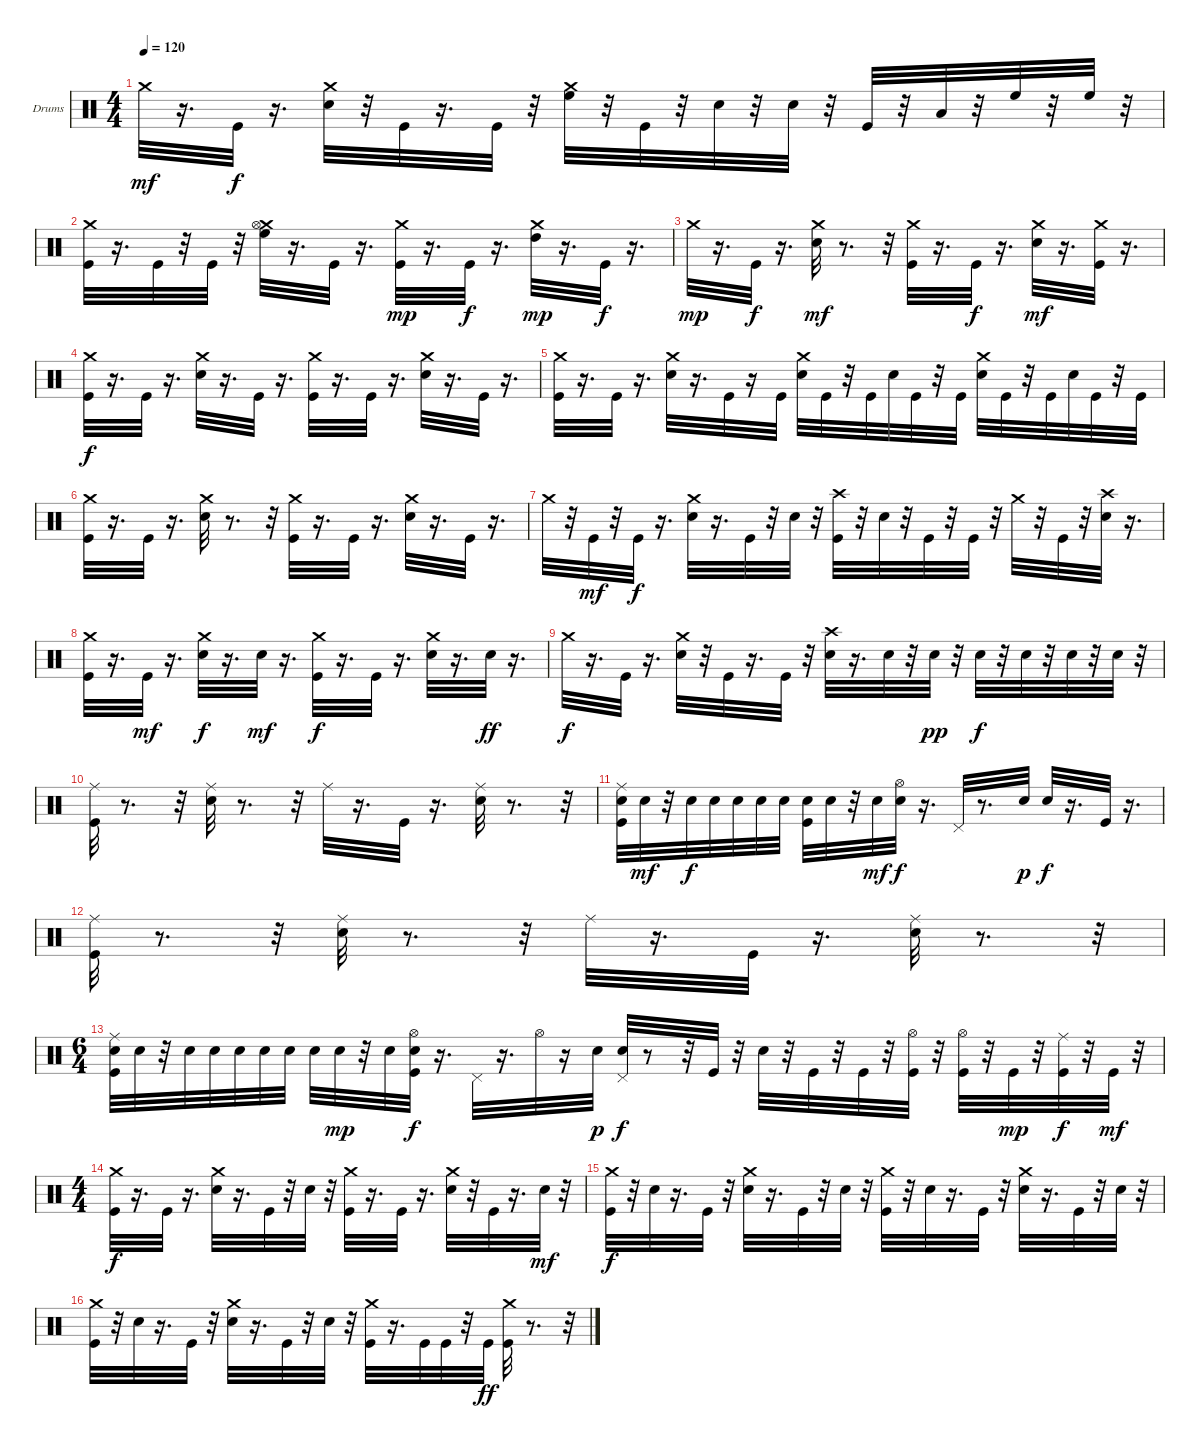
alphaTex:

\bracketExtendMode groupsimilarinstruments
\firstSystemTrackNameOrientation horizontal
\otherSystemsTrackNameOrientation horizontal
\track ("Drumkit" "Drums") {instrument percussion}
\staff {score}
\articulation defaults
\ts (4 4)
\tempo 120
\clef neutral
\ks c "Crash medium (hit)".32{dy mf}
r.16{d} "Kick (hit)".32{dy f} r.16{d} ("Snare (hit) 2" "Crash medium (hit)").32 r.32 "Kick (hit)".32 r.16{d} "Kick (hit)".32 r.32 ("High Floor Tom (hit)" "Crash medium (hit)").32 r.32 "Kick (hit)".32 r.32 "Snare (hit) 2".32 r.32 "Snare (hit) 2".32 r.32 "Kick (hit)".32 r.32 "Low Tom (hit)".32 r.32 "High Floor Tom (hit)".32 r.32 "High Floor Tom (hit)".32 r.32 |
("Crash medium (hit)" "Kick (hit)").32 r.16{d} "Kick (hit)".32 r.32 "Kick (hit)".32 r.32 ("Crash medium (hit)" "Hi-Hat (open)" "High Floor Tom (hit)").32 r.16{d} "Kick (hit)".32 r.16{d} ("Crash medium (hit)" "Kick (hit)").32{dy mp} r.16{d} "Kick (hit)".32{dy f} r.16{d} ("Crash medium (hit)" "High Tom (hit)").32{dy mp} r.16{d} "Kick (hit)".32{dy f} r.16{d} |
"Crash medium (hit)".32{dy mp} r.16{d} "Kick (hit)".32{dy f} r.16{d} ("Crash medium (hit)" "Snare (hit) 2").32{dy mf} r.8{d} r.32 ("Crash medium (hit)" "Kick (hit)").32 r.16{d} "Kick (hit)".32{dy f} r.16{d} ("Crash medium (hit)" "Snare (hit) 2").32{dy mf} r.16{d} ("Crash medium (hit)" "Kick (hit)").32 r.16{d} |
("Crash medium (hit)" "Kick (hit)").32{dy f} r.16{d} "Kick (hit)".32 r.16{d} ("Crash medium (hit)" "Snare (hit) 2").32 r.16{d} "Kick (hit)".32 r.16{d} ("Crash medium (hit)" "Kick (hit)").32 r.16{d} "Kick (hit)".32 r.16{d} ("Crash medium (hit)" "Snare (hit) 2").32 r.16{d} "Kick (hit)".32 r.16{d} |
("Crash medium (hit)" "Kick (hit)").32 r.16{d} "Kick (hit)".32 r.16{d} ("Crash medium (hit)" "Snare (hit) 2").32 r.16{d} "Kick (hit)".32 r.16 "Kick (hit)".32 ("Crash medium (hit)" "Snare (hit) 2").32 "Kick (hit)".32 r.32 "Kick (hit)".32 "Snare (hit) 2".32 "Kick (hit)".32 r.32 "Kick (hit)".32 ("Crash medium (hit)" "Snare (hit) 2").32 "Kick (hit)".32 r.32 "Kick (hit)".32 "Snare (hit) 2".32 "Kick (hit)".32 r.32 "Kick (hit)".32 |
("Crash medium (hit)" "Kick (hit)").32 r.16{d} "Kick (hit)".32 r.16{d} ("Crash medium (hit)" "Snare (hit) 2").32 r.8{d} r.32 ("Crash medium (hit)" "Kick (hit)").32 r.16{d} "Kick (hit)".32 r.16{d} ("Crash medium (hit)" "Snare (hit) 2").32 r.16{d} "Kick (hit)".32 r.16{d} |
"Crash medium (hit)".32 r.32 "Kick (hit)".32{dy mf} r.32 "Kick (hit)".32{dy f} r.16{d} ("Crash medium (hit)" "Snare (hit) 2").32 r.16{d} "Kick (hit)".32 r.32 "Snare (hit) 2".32 r.32 ("Crash high (hit)" "Kick (hit)").32 r.32 "Snare (hit) 2".32 r.32 "Kick (hit)".32 r.32 "Kick (hit)".32 r.32 "Crash medium (hit)".32 r.32 "Kick (hit)".32 r.32 ("Crash high (hit)" "Snare (hit) 2").32 r.16{d} |
("Crash medium (hit)" "Kick (hit)").32 r.16{d} "Kick (hit)".32{dy mf} r.16{d} ("Crash medium (hit)" "Snare (hit) 2").32{dy f} r.16{d} "Snare (hit) 2".32{dy mf} r.16{d} ("Crash medium (hit)" "Kick (hit)").32{dy f} r.16{d} "Kick (hit)".32 r.16{d} ("Crash medium (hit)" "Snare (hit) 2").32 r.16{d} "Snare (hit) 2".32{dy ff} r.16{d} |
"Crash medium (hit)".32{dy f} r.16{d} "Kick (hit)".32 r.16{d} ("Crash medium (hit)" "Snare (hit) 2").32 r.32 "Kick (hit)".32 r.16{d} "Kick (hit)".32 r.32 ("Crash high (hit)" "Snare (hit) 2").32 r.16{d} "Snare (hit) 2".32 r.32 "Snare (hit) 2".32{dy pp} r.32 "Snare (hit) 2".32{dy f} r.32 "Snare (hit) 2".32 r.32 "Snare (hit) 2".32 r.32 "Snare (hit) 2".32 r.32 |
("Ride (middle)" "Kick (hit)").32 r.8{d} r.32 ("Ride (middle)" "Snare (hit) 2").32 r.8{d} r.32 "Ride (middle)".32 r.16{d} "Kick (hit)".32 r.16{d} ("Ride (middle)" "Snare (hit) 2").32 r.8{d} r.32 |
("Ride (middle)" "Kick (hit)" "Snare (hit) 2").32 "Snare (hit) 2".32{dy mf} r.32 "Snare (hit) 2".32{dy f} "Snare (hit) 2".32 "Snare (hit) 2".32 "Snare (hit) 2".32 "Snare (hit) 2".32 ("Snare (hit) 2" "Kick (hit)").32 "Snare (hit) 2".32 r.32 "Snare (hit) 2".32{dy mf} ("Hi-Hat (open)" "Snare (hit) 2").32{dy f} r.16{d} "Pedal Hi-Hat (hit)".32 r.8{d} "Snare (hit) 2".32{dy p} "Snare (hit) 2".32{dy f} r.16{d} "Kick (hit)".32 r.16{d} |
("Ride (middle)" "Kick (hit)").32 r.8{d} r.32 ("Ride (middle)" "Snare (hit) 2").32 r.8{d} r.32 "Ride (middle)".32 r.16{d} "Kick (hit)".32 r.16{d} ("Ride (middle)" "Snare (hit) 2").32 r.8{d} r.32 |
\ts (6 4)
("Ride (middle)" "Kick (hit)" "Snare (hit) 2").32 "Snare (hit) 2".32 r.32 "Snare (hit) 2".32 "Snare (hit) 2".32 "Snare (hit) 2".32 "Snare (hit) 2".32 "Snare (hit) 2".32 "Snare (hit) 2".32 "Snare (hit) 2".32{dy mp} r.32 "Snare (hit) 2".32 ("Kick (hit)" "Hi-Hat (open)" "Snare (hit) 2").32{dy f} r.16{d} "Pedal Hi-Hat (hit)".32 r.16{d} "Hi-Hat (open)".32 r.16 "Snare (hit) 2".32{dy p} ("Pedal Hi-Hat (hit)" "Snare (hit) 2").32{dy f} r.8 r.32 "Kick (hit)".32 r.32 "Snare (hit) 2".32 r.32 "Kick (hit)".32 r.32 "Kick (hit)".32 r.32 ("Kick (hit)" "Hi-Hat (open)").32 r.32 ("Hi-Hat (open)" "Kick (hit)").32 r.32 "Kick (hit)".32{dy mp} r.32 ("Ride (middle)" "Kick (hit)").32{dy f} r.32 "Kick (hit)".32{dy mf} r.32 |
\ts (4 4)
("Crash medium (hit)" "Kick (hit)").32{dy f} r.16{d} "Kick (hit)".32 r.16{d} ("Crash medium (hit)" "Snare (hit) 2").32 r.16{d} "Kick (hit)".32 r.32 "Snare (hit) 2".32 r.32 ("Crash medium (hit)" "Kick (hit)").32 r.16{d} "Kick (hit)".32 r.16{d} ("Crash medium (hit)" "Snare (hit) 2").32 r.32 "Kick (hit)".32 r.16{d} "Snare (hit) 2".32{dy mf} r.32 |
("Crash medium (hit)" "Kick (hit)").32{dy f} r.32 "Snare (hit) 2".32 r.16{d} "Kick (hit)".32 r.32 ("Crash medium (hit)" "Snare (hit) 2").32 r.16{d} "Kick (hit)".32 r.32 "Snare (hit) 2".32 r.32 ("Crash medium (hit)" "Kick (hit)").32 r.32 "Snare (hit) 2".32 r.16{d} "Kick (hit)".32 r.32 ("Crash medium (hit)" "Snare (hit) 2").32 r.16{d} "Kick (hit)".32 r.32 "Snare (hit) 2".32 r.32 |
("Crash medium (hit)" "Kick (hit)").32 r.32 "Snare (hit) 2".32 r.16{d} "Kick (hit)".32 r.32 ("Crash medium (hit)" "Snare (hit) 2").32 r.16{d} "Kick (hit)".32 r.32 "Snare (hit) 2".32 r.32 ("Crash medium (hit)" "Kick (hit)").32 r.16{d} "Kick (hit)".32 "Kick (hit)".32 r.32 "Kick (hit)".32{dy ff} ("Kick (hit)" "Crash medium (hit)").32 r.8{d} r.32
